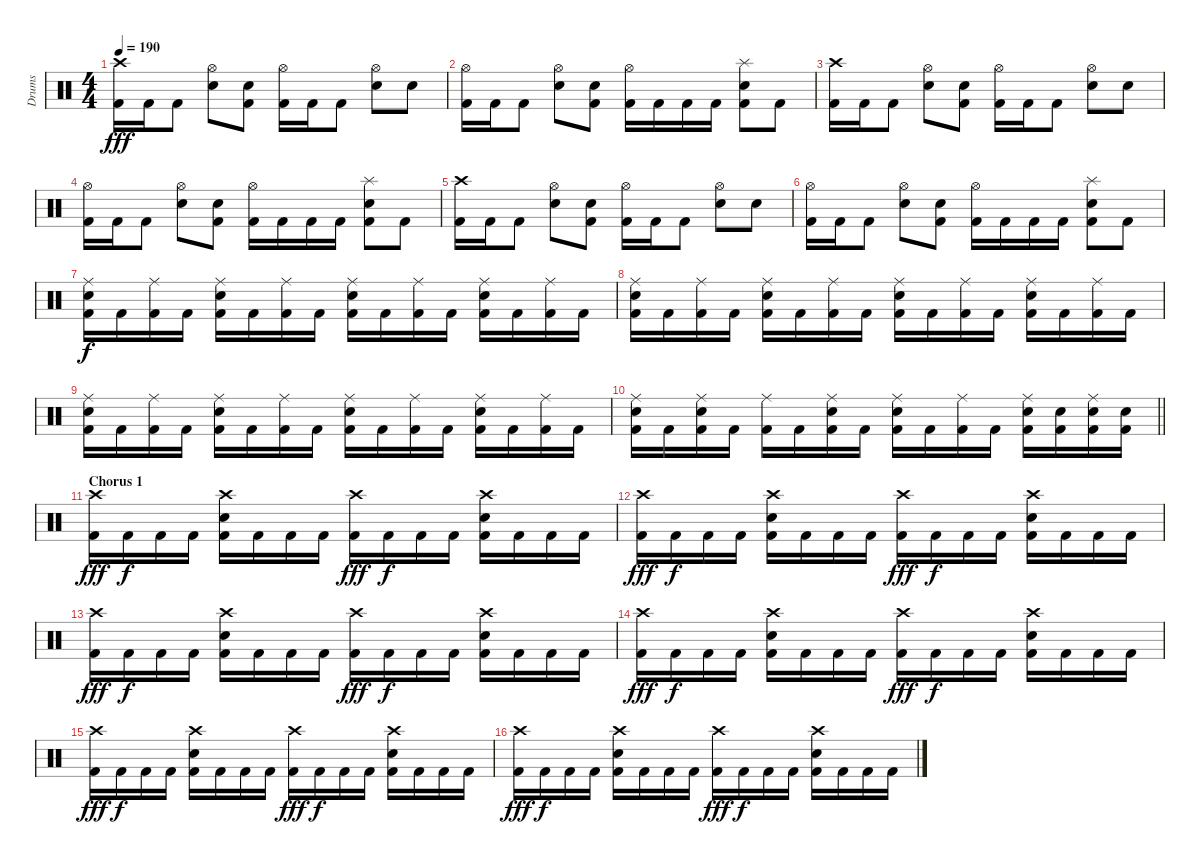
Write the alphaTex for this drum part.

\track ("Drums" "Drums") {instrument percussion}
\staff {score}
\articulation defaults
\ts (4 4)
\tempo 190
\clef neutral
\ks c
("Crash high (hit)" "Kick (hit) 2").16{dy fff} "Kick (hit) 2".16 "Kick (hit) 2".8 ("Hi-Hat (open)" "Electric Snare (hit)").8 ("Electric Snare (hit)" "Kick (hit) 2").8 ("Hi-Hat (open)" "Kick (hit) 2").16 "Kick (hit) 2".16 "Kick (hit) 2".8 ("Hi-Hat (open)" "Electric Snare (hit)").8 "Electric Snare (hit)".8 |
("Hi-Hat (open)" "Kick (hit) 2").16 "Kick (hit) 2".16 "Kick (hit) 2".8 ("Hi-Hat (open)" "Electric Snare (hit)").8 ("Electric Snare (hit)" "Kick (hit) 2").8 ("Hi-Hat (open)" "Kick (hit) 2").16 "Kick (hit) 2".16 "Kick (hit) 2".16 "Kick (hit) 2".16 ("Splash (hit)" "Electric Snare (hit)" "Kick (hit) 2").8 "Kick (hit) 2".8 |
("Crash high (hit)" "Kick (hit) 2").16 "Kick (hit) 2".16 "Kick (hit) 2".8 ("Hi-Hat (open)" "Electric Snare (hit)").8 ("Electric Snare (hit)" "Kick (hit) 2").8 ("Hi-Hat (open)" "Kick (hit) 2").16 "Kick (hit) 2".16 "Kick (hit) 2".8 ("Hi-Hat (open)" "Electric Snare (hit)").8 "Electric Snare (hit)".8 |
("Hi-Hat (open)" "Kick (hit) 2").16 "Kick (hit) 2".16 "Kick (hit) 2".8 ("Hi-Hat (open)" "Electric Snare (hit)").8 ("Electric Snare (hit)" "Kick (hit) 2").8 ("Hi-Hat (open)" "Kick (hit) 2").16 "Kick (hit) 2".16 "Kick (hit) 2".16 "Kick (hit) 2".16 ("Splash (hit)" "Electric Snare (hit)" "Kick (hit) 2").8 "Kick (hit) 2".8 |
("Crash high (hit)" "Kick (hit) 2").16 "Kick (hit) 2".16 "Kick (hit) 2".8 ("Hi-Hat (open)" "Electric Snare (hit)").8 ("Electric Snare (hit)" "Kick (hit) 2").8 ("Hi-Hat (open)" "Kick (hit) 2").16 "Kick (hit) 2".16 "Kick (hit) 2".8 ("Hi-Hat (open)" "Electric Snare (hit)").8 "Electric Snare (hit)".8 |
("Hi-Hat (open)" "Kick (hit) 2").16 "Kick (hit) 2".16 "Kick (hit) 2".8 ("Hi-Hat (open)" "Electric Snare (hit)").8 ("Electric Snare (hit)" "Kick (hit) 2").8 ("Hi-Hat (open)" "Kick (hit) 2").16 "Kick (hit) 2".16 "Kick (hit) 2".16 "Kick (hit) 2".16 ("Splash (hit)" "Electric Snare (hit)" "Kick (hit) 2").8 "Kick (hit) 2".8 |
("Ride (middle)" "Electric Snare (hit)" "Kick (hit) 2").16{dy f} "Kick (hit) 2".16 ("Ride (middle)" "Kick (hit) 2").16 "Kick (hit) 2".16 ("Ride (middle)" "Electric Snare (hit)" "Kick (hit) 2").16 "Kick (hit) 2".16 ("Ride (middle)" "Kick (hit) 2").16 "Kick (hit) 2".16 ("Ride (middle)" "Electric Snare (hit)" "Kick (hit) 2").16 "Kick (hit) 2".16 ("Ride (middle)" "Kick (hit) 2").16 "Kick (hit) 2".16 ("Ride (middle)" "Electric Snare (hit)" "Kick (hit) 2").16 "Kick (hit) 2".16 ("Ride (middle)" "Kick (hit) 2").16 "Kick (hit) 2".16 |
("Ride (middle)" "Electric Snare (hit)" "Kick (hit) 2").16 "Kick (hit) 2".16 ("Ride (middle)" "Kick (hit) 2").16 "Kick (hit) 2".16 ("Ride (middle)" "Electric Snare (hit)" "Kick (hit) 2").16 "Kick (hit) 2".16 ("Ride (middle)" "Kick (hit) 2").16 "Kick (hit) 2".16 ("Ride (middle)" "Electric Snare (hit)" "Kick (hit) 2").16 "Kick (hit) 2".16 ("Ride (middle)" "Kick (hit) 2").16 "Kick (hit) 2".16 ("Ride (middle)" "Electric Snare (hit)" "Kick (hit) 2").16 "Kick (hit) 2".16 ("Ride (middle)" "Kick (hit) 2").16 "Kick (hit) 2".16 |
("Ride (middle)" "Electric Snare (hit)" "Kick (hit) 2").16 "Kick (hit) 2".16 ("Ride (middle)" "Kick (hit) 2").16 "Kick (hit) 2".16 ("Ride (middle)" "Electric Snare (hit)" "Kick (hit) 2").16 "Kick (hit) 2".16 ("Ride (middle)" "Kick (hit) 2").16 "Kick (hit) 2".16 ("Ride (middle)" "Electric Snare (hit)" "Kick (hit) 2").16 "Kick (hit) 2".16 ("Ride (middle)" "Kick (hit) 2").16 "Kick (hit) 2".16 ("Ride (middle)" "Electric Snare (hit)" "Kick (hit) 2").16 "Kick (hit) 2".16 ("Ride (middle)" "Kick (hit) 2").16 "Kick (hit) 2".16 |
\barLineRight lightlight
("Ride (middle)" "Electric Snare (hit)" "Kick (hit) 2").16 "Kick (hit) 2".16 ("Ride (middle)" "Electric Snare (hit)" "Kick (hit) 2").16 "Kick (hit) 2".16 ("Ride (middle)" "Kick (hit) 2").16 "Kick (hit) 2".16 ("Ride (middle)" "Electric Snare (hit)" "Kick (hit) 2").16 "Kick (hit) 2".16 ("Ride (middle)" "Electric Snare (hit)" "Kick (hit) 2").16 "Kick (hit) 2".16 ("Ride (middle)" "Kick (hit) 2").16 "Kick (hit) 2".16 ("Ride (middle)" "Electric Snare (hit)" "Kick (hit) 2").16 ("Electric Snare (hit)" "Kick (hit) 2").16 ("Ride (middle)" "Electric Snare (hit)" "Kick (hit) 2").16 ("Electric Snare (hit)" "Kick (hit) 2").16 |
\section ("" "Chorus 1")
("Crash high (hit)" "Kick (hit) 2").16{dy fff} "Kick (hit) 2".16{dy f} "Kick (hit) 2".16 "Kick (hit) 2".16 ("Crash high (hit)" "Electric Snare (hit)" "Kick (hit) 2").16 "Kick (hit) 2".16 "Kick (hit) 2".16 "Kick (hit) 2".16 ("Crash high (hit)" "Kick (hit) 2").16{dy fff} "Kick (hit) 2".16{dy f} "Kick (hit) 2".16 "Kick (hit) 2".16 ("Crash high (hit)" "Electric Snare (hit)" "Kick (hit) 2").16 "Kick (hit) 2".16 "Kick (hit) 2".16 "Kick (hit) 2".16 |
("Crash high (hit)" "Kick (hit) 2").16{dy fff} "Kick (hit) 2".16{dy f} "Kick (hit) 2".16 "Kick (hit) 2".16 ("Crash high (hit)" "Electric Snare (hit)" "Kick (hit) 2").16 "Kick (hit) 2".16 "Kick (hit) 2".16 "Kick (hit) 2".16 ("Crash high (hit)" "Kick (hit) 2").16{dy fff} "Kick (hit) 2".16{dy f} "Kick (hit) 2".16 "Kick (hit) 2".16 ("Crash high (hit)" "Electric Snare (hit)" "Kick (hit) 2").16 "Kick (hit) 2".16 "Kick (hit) 2".16 "Kick (hit) 2".16 |
("Crash high (hit)" "Kick (hit) 2").16{dy fff} "Kick (hit) 2".16{dy f} "Kick (hit) 2".16 "Kick (hit) 2".16 ("Crash high (hit)" "Electric Snare (hit)" "Kick (hit) 2").16 "Kick (hit) 2".16 "Kick (hit) 2".16 "Kick (hit) 2".16 ("Crash high (hit)" "Kick (hit) 2").16{dy fff} "Kick (hit) 2".16{dy f} "Kick (hit) 2".16 "Kick (hit) 2".16 ("Crash high (hit)" "Electric Snare (hit)" "Kick (hit) 2").16 "Kick (hit) 2".16 "Kick (hit) 2".16 "Kick (hit) 2".16 |
("Crash high (hit)" "Kick (hit) 2").16{dy fff} "Kick (hit) 2".16{dy f} "Kick (hit) 2".16 "Kick (hit) 2".16 ("Crash high (hit)" "Electric Snare (hit)" "Kick (hit) 2").16 "Kick (hit) 2".16 "Kick (hit) 2".16 "Kick (hit) 2".16 ("Crash high (hit)" "Kick (hit) 2").16{dy fff} "Kick (hit) 2".16{dy f} "Kick (hit) 2".16 "Kick (hit) 2".16 ("Crash high (hit)" "Electric Snare (hit)" "Kick (hit) 2").16 "Kick (hit) 2".16 "Kick (hit) 2".16 "Kick (hit) 2".16 |
("Crash high (hit)" "Kick (hit) 2").16{dy fff} "Kick (hit) 2".16{dy f} "Kick (hit) 2".16 "Kick (hit) 2".16 ("Crash high (hit)" "Electric Snare (hit)" "Kick (hit) 2").16 "Kick (hit) 2".16 "Kick (hit) 2".16 "Kick (hit) 2".16 ("Crash high (hit)" "Kick (hit) 2").16{dy fff} "Kick (hit) 2".16{dy f} "Kick (hit) 2".16 "Kick (hit) 2".16 ("Crash high (hit)" "Electric Snare (hit)" "Kick (hit) 2").16 "Kick (hit) 2".16 "Kick (hit) 2".16 "Kick (hit) 2".16 |
("Crash high (hit)" "Kick (hit) 2").16{dy fff} "Kick (hit) 2".16{dy f} "Kick (hit) 2".16 "Kick (hit) 2".16 ("Crash high (hit)" "Electric Snare (hit)" "Kick (hit) 2").16 "Kick (hit) 2".16 "Kick (hit) 2".16 "Kick (hit) 2".16 ("Crash high (hit)" "Kick (hit) 2").16{dy fff} "Kick (hit) 2".16{dy f} "Kick (hit) 2".16 "Kick (hit) 2".16 ("Crash high (hit)" "Electric Snare (hit)" "Kick (hit) 2").16 "Kick (hit) 2".16 "Kick (hit) 2".16 "Kick (hit) 2".16
